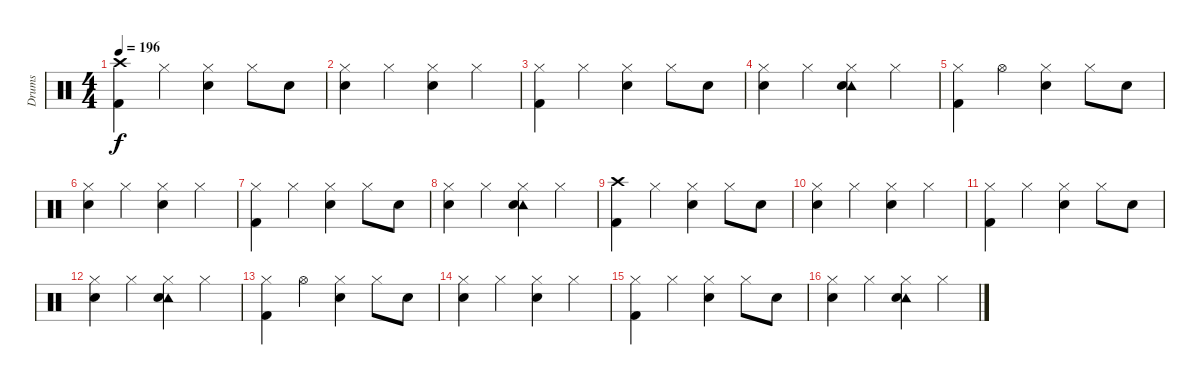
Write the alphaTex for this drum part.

\track ("Drums" "Drums") {instrument percussion}
\staff {score}
\articulation defaults
\ts (4 4)
\tempo 196
\clef neutral
\ks c
("Crash high (hit)" "Kick (hit) 2").4{dy f} "Hi-Hat (closed)".4 ("Hi-Hat (closed)" "Snare (hit) 2").4 "Hi-Hat (closed)".8 "Snare (hit) 2".8 |
("Hi-Hat (closed)" "Snare (hit) 2").4 "Hi-Hat (closed)".4 ("Hi-Hat (closed)" "Snare (hit) 2").4 "Hi-Hat (closed)".4 |
("Hi-Hat (closed)" "Kick (hit) 2").4 "Hi-Hat (closed)".4 ("Hi-Hat (closed)" "Snare (hit) 2").4 "Hi-Hat (closed)".8 "Snare (hit) 2".8 |
("Hi-Hat (closed)" "Snare (hit) 2").4 "Hi-Hat (closed)".4 ("Hi-Hat (closed)" "Tambourine (hit)" "Snare (hit) 2").4 "Hi-Hat (closed)".4 |
("Hi-Hat (closed)" "Kick (hit) 2").4 "Hi-Hat (open)".4 ("Hi-Hat (closed)" "Snare (hit) 2").4 "Hi-Hat (closed)".8 "Snare (hit) 2".8 |
("Hi-Hat (closed)" "Snare (hit) 2").4 "Hi-Hat (closed)".4 ("Hi-Hat (closed)" "Snare (hit) 2").4 "Hi-Hat (closed)".4 |
("Hi-Hat (closed)" "Kick (hit) 2").4 "Hi-Hat (closed)".4 ("Hi-Hat (closed)" "Snare (hit) 2").4 "Hi-Hat (closed)".8 "Snare (hit) 2".8 |
("Hi-Hat (closed)" "Snare (hit) 2").4 "Hi-Hat (closed)".4 ("Hi-Hat (closed)" "Tambourine (hit)" "Snare (hit) 2").4 "Hi-Hat (closed)".4 |
("Crash high (hit)" "Kick (hit) 2").4 "Hi-Hat (closed)".4 ("Hi-Hat (closed)" "Snare (hit) 2").4 "Hi-Hat (closed)".8 "Snare (hit) 2".8 |
("Hi-Hat (closed)" "Snare (hit) 2").4 "Hi-Hat (closed)".4 ("Hi-Hat (closed)" "Snare (hit) 2").4 "Hi-Hat (closed)".4 |
("Hi-Hat (closed)" "Kick (hit) 2").4 "Hi-Hat (closed)".4 ("Hi-Hat (closed)" "Snare (hit) 2").4 "Hi-Hat (closed)".8 "Snare (hit) 2".8 |
("Hi-Hat (closed)" "Snare (hit) 2").4 "Hi-Hat (closed)".4 ("Hi-Hat (closed)" "Tambourine (hit)" "Snare (hit) 2").4 "Hi-Hat (closed)".4 |
("Hi-Hat (closed)" "Kick (hit) 2").4 "Hi-Hat (open)".4 ("Hi-Hat (closed)" "Snare (hit) 2").4 "Hi-Hat (closed)".8 "Snare (hit) 2".8 |
("Hi-Hat (closed)" "Snare (hit) 2").4 "Hi-Hat (closed)".4 ("Hi-Hat (closed)" "Snare (hit) 2").4 "Hi-Hat (closed)".4 |
("Hi-Hat (closed)" "Kick (hit) 2").4 "Hi-Hat (closed)".4 ("Hi-Hat (closed)" "Snare (hit) 2").4 "Hi-Hat (closed)".8 "Snare (hit) 2".8 |
("Hi-Hat (closed)" "Snare (hit) 2").4 "Hi-Hat (closed)".4 ("Hi-Hat (closed)" "Tambourine (hit)" "Snare (hit) 2").4 "Hi-Hat (closed)".4
